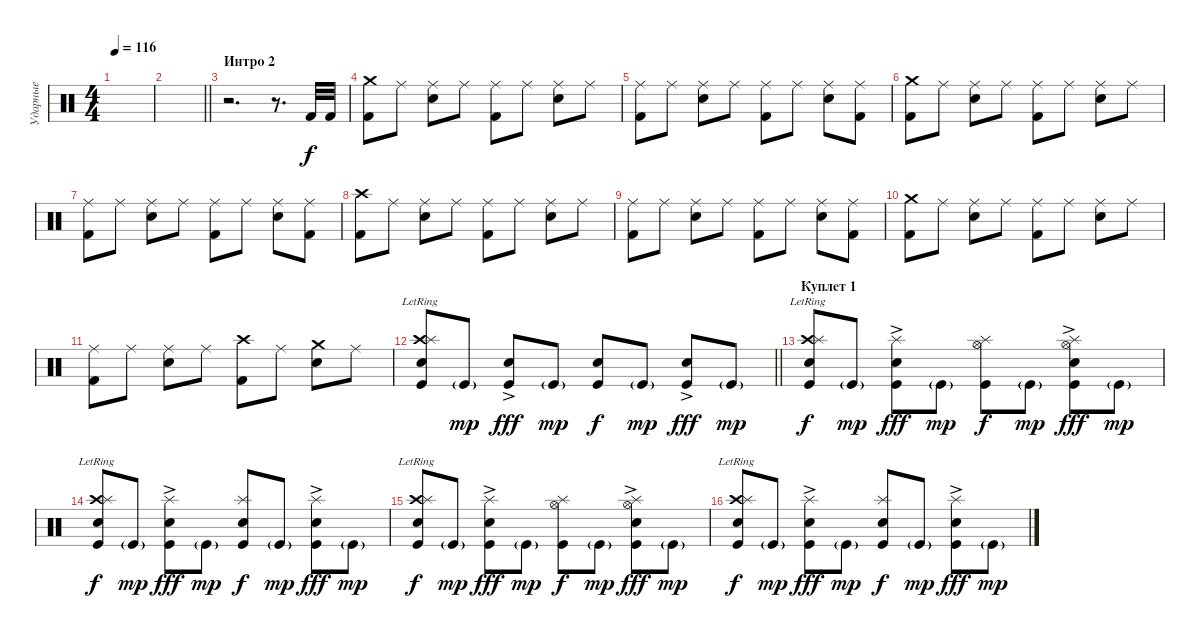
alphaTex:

\track ("Ударные" "Ударные") {instrument percussion}
\staff {score}
\articulation defaults
\ts (4 4)
\tempo 116
\clef neutral
\ks c
|
\barLineRight lightlight
|
\section ("" "Интро 2")
r.2{d} r.8{d} "Kick (hit) 2".32 "Kick (hit) 2".32 |
("Kick (hit) 2" "Crash medium (hit)").8 "Ride (middle)".8 ("Snare (hit) 2" "Ride (middle)").8 "Ride (middle)".8 ("Kick (hit) 2" "Ride (middle)").8 "Ride (middle)".8 ("Snare (hit) 2" "Ride (middle)").8 "Ride (middle)".8 |
("Kick (hit) 2" "Ride (middle)").8 "Ride (middle)".8 ("Snare (hit) 2" "Ride (middle)").8 "Ride (middle)".8 ("Kick (hit) 2" "Ride (middle)").8 "Ride (middle)".8 ("Snare (hit) 2" "Ride (middle)").8 ("Kick (hit) 2" "Ride (middle)").8 |
("Kick (hit) 2" "Crash medium (hit)").8 "Ride (middle)".8 ("Snare (hit) 2" "Ride (middle)").8 "Ride (middle)".8 ("Kick (hit) 2" "Ride (middle)").8 "Ride (middle)".8 ("Snare (hit) 2" "Ride (middle)").8 "Ride (middle)".8 |
("Kick (hit) 2" "Ride (middle)").8 "Ride (middle)".8 ("Snare (hit) 2" "Ride (middle)").8 "Ride (middle)".8 ("Kick (hit) 2" "Ride (middle)").8 "Ride (middle)".8 ("Snare (hit) 2" "Ride (middle)").8 ("Kick (hit) 2" "Ride (middle)").8 |
("Kick (hit) 2" "Crash high (hit)").8 "Ride (middle)".8 ("Snare (hit) 2" "Ride (middle)").8 "Ride (middle)".8 ("Kick (hit) 2" "Ride (middle)").8 "Ride (middle)".8 ("Snare (hit) 2" "Ride (middle)").8 "Ride (middle)".8 |
("Kick (hit) 2" "Ride (middle)").8 "Ride (middle)".8 ("Snare (hit) 2" "Ride (middle)").8 "Ride (middle)".8 ("Kick (hit) 2" "Ride (middle)").8 "Ride (middle)".8 ("Snare (hit) 2" "Ride (middle)").8 ("Kick (hit) 2" "Ride (middle)").8 |
("Kick (hit) 2" "Crash medium (hit)").8 "Ride (middle)".8 ("Snare (hit) 2" "Ride (middle)").8 "Ride (middle)".8 ("Kick (hit) 2" "Ride (middle)").8 "Ride (middle)".8 ("Snare (hit) 2" "Ride (middle)").8 "Ride (middle)".8 |
("Kick (hit) 2" "Ride (middle)").8 "Ride (middle)".8 ("Snare (hit) 2" "Ride (middle)").8 "Ride (middle)".8 ("Kick (hit) 2" "Crash high (hit)").8 "Ride (middle)".8 ("Snare (hit) 2" "Crash medium (hit)").8 "Ride (middle)".8 |
\barLineRight lightlight
("Crash high (hit)"{lr} "Splash (hit)" "Snare (hit) 2" "Kick (hit)"{lr}).8 "Kick (hit)"{g}.8{dy mp} ("Electric Snare (hit)"{ac} "Kick (hit)").8{dy fff} "Kick (hit)"{g}.8{dy mp} ("Snare (hit) 2" "Kick (hit)").8{dy f} "Kick (hit)"{g}.8{dy mp} ("Electric Snare (hit)"{ac} "Kick (hit)").8{dy fff} "Kick (hit)"{g}.8{dy mp} |
\section ("" "Куплет 1")
("Crash high (hit)"{lr} "Splash (hit)" "Snare (hit) 2" "Kick (hit)"{lr}).8{dy f} "Kick (hit)"{g}.8{dy mp} ("Splash (hit)" "Electric Snare (hit)"{ac} "Kick (hit)").8{dy fff} "Kick (hit)"{g}.8{dy mp} ("Splash (hit)" "Hi-Hat (open)" "Kick (hit)").8{dy f} "Kick (hit)"{g}.8{dy mp} ("Splash (hit)" "Hi-Hat (open)" "Electric Snare (hit)"{ac} "Kick (hit)").8{dy fff} "Kick (hit)"{g}.8{dy mp} |
("Crash high (hit)"{lr} "Splash (hit)" "Snare (hit) 2" "Kick (hit)"{lr}).8{dy f} "Kick (hit)"{g}.8{dy mp} ("Splash (hit)" "Electric Snare (hit)"{ac} "Kick (hit)").8{dy fff} "Kick (hit)"{g}.8{dy mp} ("Splash (hit)" "Snare (hit) 2" "Kick (hit)").8{dy f} "Kick (hit)"{g}.8{dy mp} ("Splash (hit)" "Electric Snare (hit)"{ac} "Kick (hit)").8{dy fff} "Kick (hit)"{g}.8{dy mp} |
("Crash high (hit)"{lr} "Splash (hit)" "Snare (hit) 2" "Kick (hit)"{lr}).8{dy f} "Kick (hit)"{g}.8{dy mp} ("Splash (hit)" "Electric Snare (hit)"{ac} "Kick (hit)").8{dy fff} "Kick (hit)"{g}.8{dy mp} ("Splash (hit)" "Hi-Hat (open)" "Kick (hit)").8{dy f} "Kick (hit)"{g}.8{dy mp} ("Splash (hit)" "Hi-Hat (open)" "Electric Snare (hit)"{ac} "Kick (hit)").8{dy fff} "Kick (hit)"{g}.8{dy mp} |
("Crash high (hit)"{lr} "Splash (hit)" "Snare (hit) 2" "Kick (hit)"{lr}).8{dy f} "Kick (hit)"{g}.8{dy mp} ("Splash (hit)" "Electric Snare (hit)"{ac} "Kick (hit)").8{dy fff} "Kick (hit)"{g}.8{dy mp} ("Splash (hit)" "Snare (hit) 2" "Kick (hit)").8{dy f} "Kick (hit)"{g}.8{dy mp} ("Splash (hit)" "Electric Snare (hit)"{ac} "Kick (hit)").8{dy fff} "Kick (hit)"{g}.8{dy mp}
